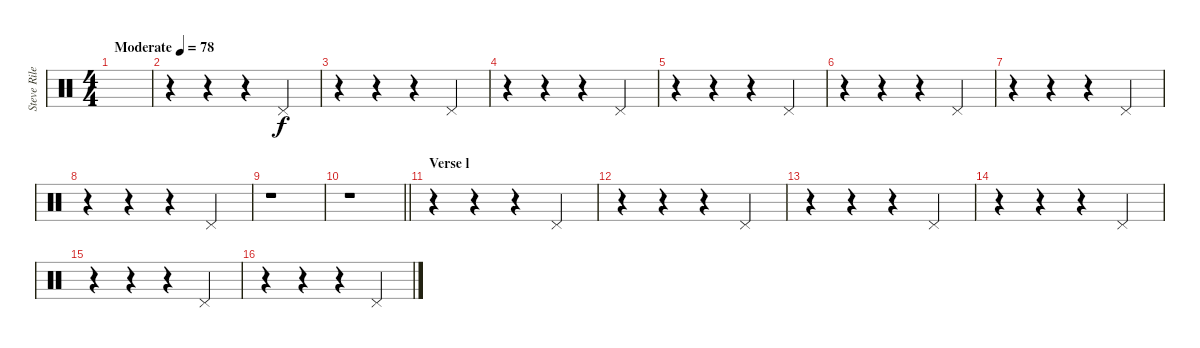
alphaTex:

\track ("Steve Riley" "Steve Rile") {instrument percussion}
\staff {score}
\articulation defaults
\ts (4 4)
\tempo (78 "Moderate")
\clef neutral
\ks c
|
r.4 r.4 r.4 "Pedal Hi-Hat (hit)".4 |
r.4 r.4 r.4 "Pedal Hi-Hat (hit)".4 |
r.4 r.4 r.4 "Pedal Hi-Hat (hit)".4 |
r.4 r.4 r.4 "Pedal Hi-Hat (hit)".4 |
r.4 r.4 r.4 "Pedal Hi-Hat (hit)".4 |
r.4 r.4 r.4 "Pedal Hi-Hat (hit)".4 |
r.4 r.4 r.4 "Pedal Hi-Hat (hit)".4 |
r.1 |
\barLineRight lightlight
r.1 |
\section ("" "Verse l")
r.4 r.4 r.4 "Pedal Hi-Hat (hit)".4 |
r.4 r.4 r.4 "Pedal Hi-Hat (hit)".4 |
r.4 r.4 r.4 "Pedal Hi-Hat (hit)".4 |
r.4 r.4 r.4 "Pedal Hi-Hat (hit)".4 |
r.4 r.4 r.4 "Pedal Hi-Hat (hit)".4 |
r.4 r.4 r.4 "Pedal Hi-Hat (hit)".4
